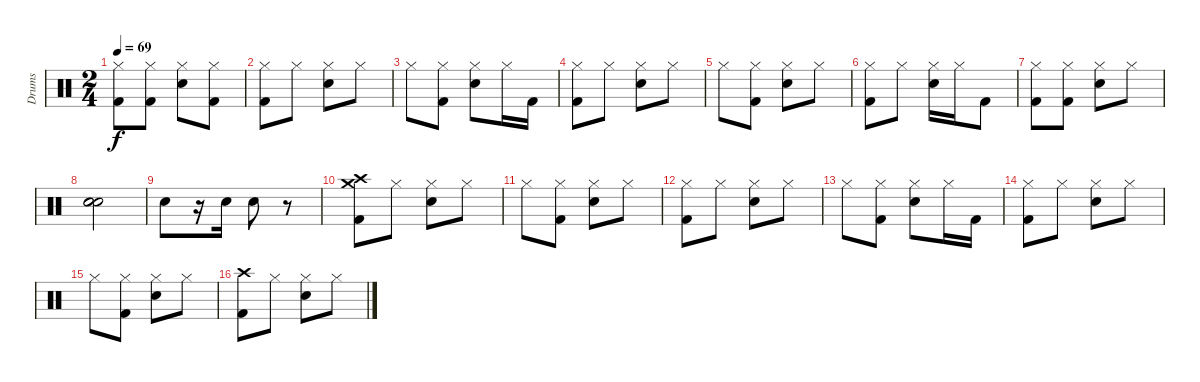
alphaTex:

\track ("Drums" "Drums") {instrument percussion}
\staff {score}
\articulation defaults
\ts (2 4)
\tempo 69
\clef neutral
\ks c
("Kick (hit) 2" "Hi-Hat (closed)").8{dy f} ("Kick (hit) 2" "Hi-Hat (closed)").8 ("Electric Snare (hit)" "Hi-Hat (closed)").8 ("Kick (hit) 2" "Hi-Hat (closed)").8 |
("Kick (hit) 2" "Hi-Hat (closed)").8 "Hi-Hat (closed)".8 ("Electric Snare (hit)" "Hi-Hat (closed)").8 "Hi-Hat (closed)".8 |
"Hi-Hat (closed)".8 ("Kick (hit) 2" "Hi-Hat (closed)").8 ("Electric Snare (hit)" "Hi-Hat (closed)").8 "Hi-Hat (closed)".16 "Kick (hit) 2".16 |
("Kick (hit) 2" "Hi-Hat (closed)").8 "Hi-Hat (closed)".8 ("Electric Snare (hit)" "Hi-Hat (closed)").8 "Hi-Hat (closed)".8 |
"Hi-Hat (closed)".8 ("Kick (hit) 2" "Hi-Hat (closed)").8 ("Electric Snare (hit)" "Hi-Hat (closed)").8 "Hi-Hat (closed)".8 |
("Kick (hit) 2" "Hi-Hat (closed)").8 "Hi-Hat (closed)".8 ("Electric Snare (hit)" "Hi-Hat (closed)").16 "Hi-Hat (closed)".16 "Kick (hit) 2".8 |
("Kick (hit) 2" "Hi-Hat (closed)").8 ("Kick (hit) 2" "Hi-Hat (closed)").8 ("Electric Snare (hit)" "Hi-Hat (closed)").8 "Hi-Hat (closed)".8 |
("Electric Snare (hit)" "Electric Snare (hit)" "Electric Snare (hit)").2 |
"Electric Snare (hit)".8 r.16 "Electric Snare (hit)".16 "Electric Snare (hit)".8 r.8 |
("Kick (hit) 2" "Crash high (hit)" "Crash medium (hit)").8 "Hi-Hat (closed)".8 ("Electric Snare (hit)" "Hi-Hat (closed)").8 "Hi-Hat (closed)".8 |
"Hi-Hat (closed)".8 ("Kick (hit) 2" "Hi-Hat (closed)").8 ("Electric Snare (hit)" "Hi-Hat (closed)").8 "Hi-Hat (closed)".8 |
("Kick (hit) 2" "Hi-Hat (closed)").8 "Hi-Hat (closed)".8 ("Electric Snare (hit)" "Hi-Hat (closed)").8 "Hi-Hat (closed)".8 |
"Hi-Hat (closed)".8 ("Kick (hit) 2" "Hi-Hat (closed)").8 ("Electric Snare (hit)" "Hi-Hat (closed)").8 "Hi-Hat (closed)".16 "Kick (hit) 2".16 |
("Kick (hit) 2" "Hi-Hat (closed)").8 "Hi-Hat (closed)".8 ("Electric Snare (hit)" "Hi-Hat (closed)").8 "Hi-Hat (closed)".8 |
"Hi-Hat (closed)".8 ("Kick (hit) 2" "Hi-Hat (closed)").8 ("Electric Snare (hit)" "Hi-Hat (closed)").8 "Hi-Hat (closed)".8 |
("Kick (hit) 2" "Crash high (hit)").8 "Hi-Hat (closed)".8 ("Electric Snare (hit)" "Hi-Hat (closed)").8 "Hi-Hat (closed)".8
